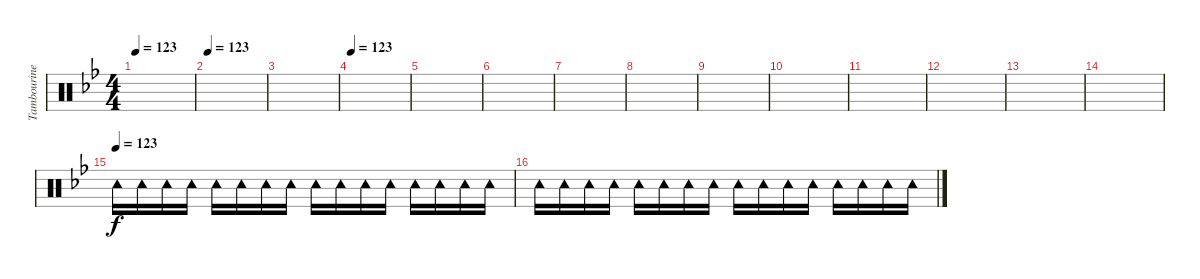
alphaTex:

\track ("Tambourine" "Tambourine") {instrument percussion}
\staff {score}
\articulation defaults
\ts (4 4)
\tempo 123
\clef neutral
\ks bb
|
\tempo 123
|
|
\tempo 123
|
|
|
|
|
|
|
|
|
|
|
\tempo (123)
"Tambourine (hit)".16{volume 3} "Tambourine (hit)".16 "Tambourine (hit)".16 "Tambourine (hit)".16 "Tambourine (hit)".16 "Tambourine (hit)".16 "Tambourine (hit)".16 "Tambourine (hit)".16 "Tambourine (hit)".16 "Tambourine (hit)".16 "Tambourine (hit)".16 "Tambourine (hit)".16 "Tambourine (hit)".16 "Tambourine (hit)".16 "Tambourine (hit)".16 "Tambourine (hit)".16 |
"Tambourine (hit)".16 "Tambourine (hit)".16 "Tambourine (hit)".16 "Tambourine (hit)".16 "Tambourine (hit)".16 "Tambourine (hit)".16 "Tambourine (hit)".16 "Tambourine (hit)".16 "Tambourine (hit)".16 "Tambourine (hit)".16 "Tambourine (hit)".16 "Tambourine (hit)".16 "Tambourine (hit)".16 "Tambourine (hit)".16 "Tambourine (hit)".16 "Tambourine (hit)".16
